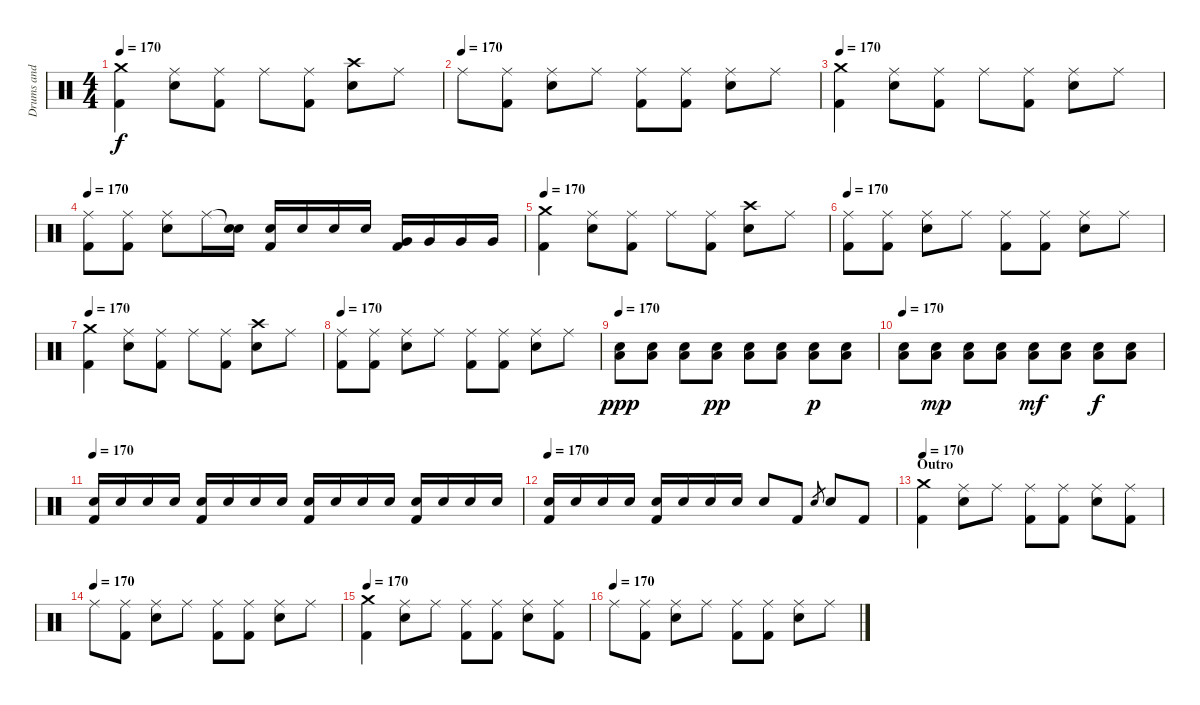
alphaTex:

\track ("Drums and Percussion" "Drums and ") {instrument percussion}
\staff {score}
\articulation defaults
\ts (4 4)
\tempo 170
\clef neutral
\ks c
("Crash medium (hit)" "Kick (hit) 2").4{dy f} ("Ride (middle)" "Electric Snare (hit)").8 ("Ride (middle)" "Kick (hit) 2").8 "Ride (middle)".8 ("Ride (middle)" "Kick (hit) 2").8 ("Crash high (hit)" "Electric Snare (hit)").8 "Ride (middle)".8 |
\tempo (170)
"Ride (middle)".8 ("Ride (middle)" "Kick (hit) 2").8 ("Ride (middle)" "Electric Snare (hit)").8 "Ride (middle)".8 ("Ride (middle)" "Kick (hit) 2").8 ("Ride (middle)" "Kick (hit) 2").8 ("Ride (middle)" "Electric Snare (hit)").8 "Ride (middle)".8 |
\tempo 170
("Crash medium (hit)" "Kick (hit) 2").4 ("Ride (middle)" "Electric Snare (hit)").8 ("Ride (middle)" "Kick (hit) 2").8 "Ride (middle)".8 ("Ride (middle)" "Kick (hit) 2").8 ("Ride (middle)" "Electric Snare (hit)").8 "Ride (middle)".8 |
\tempo 170
("Ride (middle)" "Kick (hit) 2").8 ("Ride (middle)" "Kick (hit) 2").8 ("Ride (middle)" "Electric Snare (hit)").8 "Ride (middle)".16 ("Snare (hit)"{t} "Electric Snare (hit)").16 ("Electric Snare (hit)" "Kick (hit) 2").16 "Electric Snare (hit)".16 "Electric Snare (hit)".16 "Electric Snare (hit)".16 ("Very Low Tom (hit)" "Kick (hit) 2").16 "Very Low Tom (hit)".16 "Very Low Tom (hit)".16 "Very Low Tom (hit)".16 |
\tempo 170
("Crash medium (hit)" "Kick (hit) 2").4 ("Ride (middle)" "Electric Snare (hit)").8 ("Ride (middle)" "Kick (hit) 2").8 "Ride (middle)".8 ("Ride (middle)" "Kick (hit) 2").8 ("Crash high (hit)" "Electric Snare (hit)").8 "Ride (middle)".8 |
\tempo 170
("Ride (middle)" "Kick (hit) 2").8 ("Ride (middle)" "Kick (hit) 2").8 ("Ride (middle)" "Electric Snare (hit)").8 "Ride (middle)".8 ("Ride (middle)" "Kick (hit) 2").8 ("Ride (middle)" "Kick (hit) 2").8 ("Ride (middle)" "Electric Snare (hit)").8 "Ride (middle)".8 |
\tempo 170
("Crash medium (hit)" "Kick (hit) 2").4 ("Ride (middle)" "Electric Snare (hit)").8 ("Ride (middle)" "Kick (hit) 2").8 "Ride (middle)".8 ("Ride (middle)" "Kick (hit) 2").8 ("Crash high (hit)" "Electric Snare (hit)").8 "Ride (middle)".8 |
\tempo 170
("Ride (middle)" "Kick (hit) 2").8 ("Ride (middle)" "Kick (hit) 2").8 ("Ride (middle)" "Electric Snare (hit)").8 "Ride (middle)".8 ("Ride (middle)" "Kick (hit) 2").8 ("Ride (middle)" "Kick (hit) 2").8 ("Ride (middle)" "Electric Snare (hit)").8 "Ride (middle)".8 |
\tempo 170
("Electric Snare (hit)" "Low Floor Tom (hit)").8{dy ppp} ("Electric Snare (hit)" "Low Floor Tom (hit)").8 ("Electric Snare (hit)" "Low Floor Tom (hit)").8 ("Electric Snare (hit)" "Low Floor Tom (hit)").8{dy pp} ("Electric Snare (hit)" "Low Floor Tom (hit)").8 ("Electric Snare (hit)" "Low Floor Tom (hit)").8 ("Electric Snare (hit)" "Low Floor Tom (hit)").8{dy p} ("Electric Snare (hit)" "Low Floor Tom (hit)").8 |
\tempo 170
("Electric Snare (hit)" "Low Floor Tom (hit)").8 ("Electric Snare (hit)" "Low Floor Tom (hit)").8{dy mp} ("Electric Snare (hit)" "Low Floor Tom (hit)").8 ("Electric Snare (hit)" "Low Floor Tom (hit)").8 ("Electric Snare (hit)" "Low Floor Tom (hit)").8{dy mf} ("Electric Snare (hit)" "Low Floor Tom (hit)").8 ("Electric Snare (hit)" "Low Floor Tom (hit)").8{dy f} ("Electric Snare (hit)" "Low Floor Tom (hit)").8 |
\tempo 170
("Electric Snare (hit)" "Kick (hit) 2").16 "Electric Snare (hit)".16 "Electric Snare (hit)".16 "Electric Snare (hit)".16 ("Electric Snare (hit)" "Kick (hit) 2").16 "Electric Snare (hit)".16 "Electric Snare (hit)".16 "Electric Snare (hit)".16 ("Electric Snare (hit)" "Kick (hit) 2").16 "Electric Snare (hit)".16 "Electric Snare (hit)".16 "Electric Snare (hit)".16 ("Electric Snare (hit)" "Kick (hit) 2").16 "Electric Snare (hit)".16 "Electric Snare (hit)".16 "Electric Snare (hit)".16 |
\tempo 170
("Electric Snare (hit)" "Kick (hit) 2").16 "Electric Snare (hit)".16 "Electric Snare (hit)".16 "Electric Snare (hit)".16 ("Electric Snare (hit)" "Kick (hit) 2").16 "Electric Snare (hit)".16 "Electric Snare (hit)".16 "Electric Snare (hit)".16 "Electric Snare (hit)".8 "Kick (hit) 2".8 "Electric Snare (hit)".8{gr} "Electric Snare (hit)".8 "Kick (hit) 2".8 |
\section ("" "Outro")
\tempo 170
("Crash medium (hit)" "Kick (hit) 2").4 ("Ride (middle)" "Electric Snare (hit)").8 "Ride (middle)".8 ("Ride (middle)" "Kick (hit) 2").8 ("Ride (middle)" "Kick (hit) 2").8 ("Ride (middle)" "Electric Snare (hit)").8 ("Ride (middle)" "Kick (hit) 2").8 |
\tempo (170)
"Ride (middle)".8 ("Ride (middle)" "Kick (hit) 2").8 ("Ride (middle)" "Electric Snare (hit)").8 "Ride (middle)".8 ("Ride (middle)" "Kick (hit) 2").8 ("Ride (middle)" "Kick (hit) 2").8 ("Ride (middle)" "Electric Snare (hit)").8 "Ride (middle)".8 |
\tempo 170
("Crash medium (hit)" "Kick (hit) 2").4 ("Ride (middle)" "Electric Snare (hit)").8 "Ride (middle)".8 ("Ride (middle)" "Kick (hit) 2").8 ("Ride (middle)" "Kick (hit) 2").8 ("Ride (middle)" "Electric Snare (hit)").8 ("Ride (middle)" "Kick (hit) 2").8 |
\tempo (170)
"Ride (middle)".8 ("Ride (middle)" "Kick (hit) 2").8 ("Ride (middle)" "Electric Snare (hit)").8 "Ride (middle)".8 ("Ride (middle)" "Kick (hit) 2").8 ("Ride (middle)" "Kick (hit) 2").8 ("Ride (middle)" "Electric Snare (hit)").8 "Ride (middle)".8
